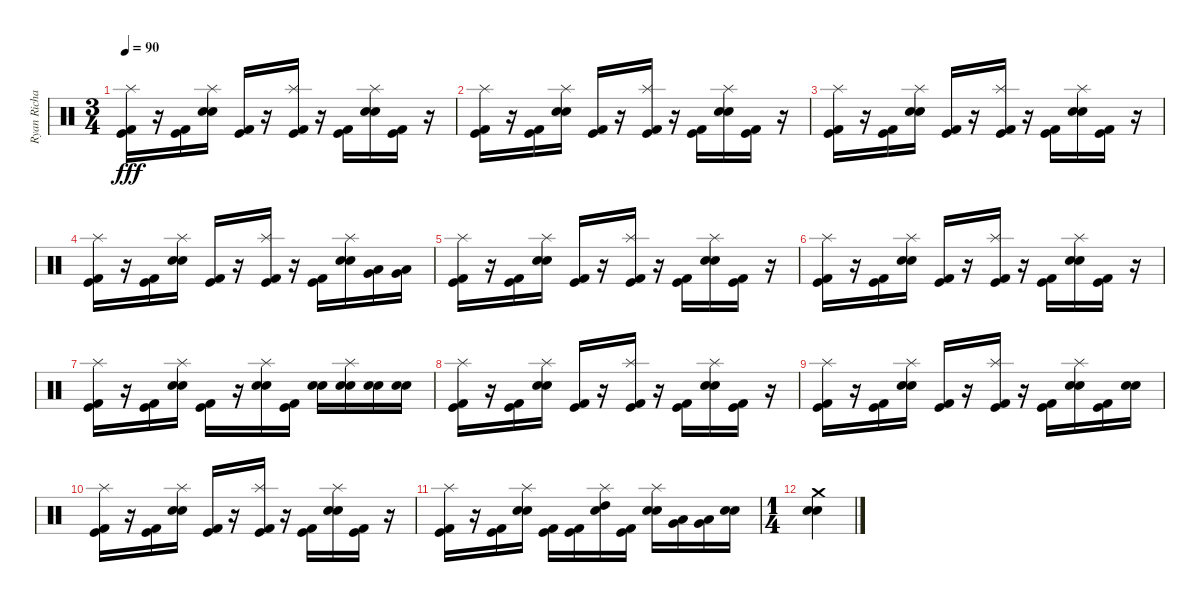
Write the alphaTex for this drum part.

\track ("Ryan Richards" "Ryan Richa") {instrument percussion}
\staff {score}
\articulation defaults
\ts (3 4)
\tempo 90
\clef neutral
\ks c
("Kick (hit)" "Splash (hit)" "Kick (hit) 2").16{dy fff} r.16 ("Kick (hit)" "Kick (hit) 2").16 ("Splash (hit)" "Snare (hit) 2" "Electric Snare (hit)").16 ("Kick (hit)" "Kick (hit) 2").16 r.16 ("Kick (hit)" "Splash (hit)" "Kick (hit) 2").16 r.16 ("Kick (hit)" "Kick (hit) 2").16 ("Splash (hit)" "Snare (hit) 2" "Electric Snare (hit)").16 ("Kick (hit)" "Kick (hit) 2").16 r.16 |
("Kick (hit)" "Splash (hit)" "Kick (hit) 2").16 r.16 ("Kick (hit)" "Kick (hit) 2").16 ("Splash (hit)" "Snare (hit) 2" "Electric Snare (hit)").16 ("Kick (hit)" "Kick (hit) 2").16 r.16 ("Kick (hit)" "Splash (hit)" "Kick (hit) 2").16 r.16 ("Kick (hit)" "Kick (hit) 2").16 ("Splash (hit)" "Snare (hit) 2" "Electric Snare (hit)").16 ("Kick (hit)" "Kick (hit) 2").16 r.16 |
("Kick (hit)" "Splash (hit)" "Kick (hit) 2").16 r.16 ("Kick (hit)" "Kick (hit) 2").16 ("Splash (hit)" "Snare (hit) 2" "Electric Snare (hit)").16 ("Kick (hit)" "Kick (hit) 2").16 r.16 ("Kick (hit)" "Splash (hit)" "Kick (hit) 2").16 r.16 ("Kick (hit)" "Kick (hit) 2").16 ("Splash (hit)" "Snare (hit) 2" "Electric Snare (hit)").16 ("Kick (hit)" "Kick (hit) 2").16 r.16 |
("Kick (hit)" "Splash (hit)" "Kick (hit) 2").16 r.16 ("Kick (hit)" "Kick (hit) 2").16 ("Splash (hit)" "Snare (hit) 2" "Electric Snare (hit)").16 ("Kick (hit)" "Kick (hit) 2").16 r.16 ("Kick (hit)" "Splash (hit)" "Kick (hit) 2").16 r.16 ("Kick (hit)" "Kick (hit) 2").16 ("Splash (hit)" "Snare (hit) 2" "Electric Snare (hit)").16 ("Low Tom (hit)" "Very Low Tom (hit)").16 ("Very Low Tom (hit)" "Low Floor Tom (hit)").16 |
("Kick (hit)" "Splash (hit)" "Kick (hit) 2").16 r.16 ("Kick (hit)" "Kick (hit) 2").16 ("Splash (hit)" "Snare (hit) 2" "Electric Snare (hit)").16 ("Kick (hit)" "Kick (hit) 2").16 r.16 ("Kick (hit)" "Splash (hit)" "Kick (hit) 2").16 r.16 ("Kick (hit)" "Kick (hit) 2").16 ("Splash (hit)" "Snare (hit) 2" "Electric Snare (hit)").16 ("Kick (hit)" "Kick (hit) 2").16 r.16 |
("Kick (hit)" "Splash (hit)" "Kick (hit) 2").16 r.16 ("Kick (hit)" "Kick (hit) 2").16 ("Splash (hit)" "Snare (hit) 2" "Electric Snare (hit)").16 ("Kick (hit)" "Kick (hit) 2").16 r.16 ("Kick (hit)" "Splash (hit)" "Kick (hit) 2").16 r.16 ("Kick (hit)" "Kick (hit) 2").16 ("Splash (hit)" "Snare (hit) 2" "Electric Snare (hit)").16 ("Kick (hit)" "Kick (hit) 2").16 r.16 |
("Kick (hit)" "Splash (hit)" "Kick (hit) 2").16 r.16 ("Kick (hit)" "Kick (hit) 2").16 ("Splash (hit)" "Snare (hit) 2" "Electric Snare (hit)").16 ("Kick (hit)" "Kick (hit) 2").16 r.16 ("Splash (hit)" "Snare (hit) 2" "Electric Snare (hit)").16 ("Kick (hit)" "Kick (hit) 2").16 ("Snare (hit) 2" "Electric Snare (hit)").16 ("Splash (hit)" "Snare (hit) 2" "Electric Snare (hit)").16 ("Snare (hit) 2" "Electric Snare (hit)").16 ("Snare (hit) 2" "Electric Snare (hit)").16 |
("Kick (hit)" "Splash (hit)" "Kick (hit) 2").16 r.16 ("Kick (hit)" "Kick (hit) 2").16 ("Splash (hit)" "Snare (hit) 2" "Electric Snare (hit)").16 ("Kick (hit)" "Kick (hit) 2").16 r.16 ("Kick (hit)" "Splash (hit)" "Kick (hit) 2").16 r.16 ("Kick (hit)" "Kick (hit) 2").16 ("Splash (hit)" "Snare (hit) 2" "Electric Snare (hit)").16 ("Kick (hit)" "Kick (hit) 2").16 r.16 |
("Kick (hit)" "Splash (hit)" "Kick (hit) 2").16 r.16 ("Kick (hit)" "Kick (hit) 2").16 ("Splash (hit)" "Snare (hit) 2" "Electric Snare (hit)").16 ("Kick (hit)" "Kick (hit) 2").16 r.16 ("Kick (hit)" "Splash (hit)" "Kick (hit) 2").16 r.16 ("Kick (hit)" "Kick (hit) 2").16 ("Splash (hit)" "Snare (hit) 2" "Electric Snare (hit)").16 ("Kick (hit)" "Kick (hit) 2").16 ("Snare (hit) 2" "Electric Snare (hit)").16 |
("Kick (hit)" "Splash (hit)" "Kick (hit) 2").16 r.16 ("Kick (hit)" "Kick (hit) 2").16 ("Splash (hit)" "Snare (hit) 2" "Electric Snare (hit)").16 ("Kick (hit)" "Kick (hit) 2").16 r.16 ("Kick (hit)" "Splash (hit)" "Kick (hit) 2").16 r.16 ("Kick (hit)" "Kick (hit) 2").16 ("Splash (hit)" "Snare (hit) 2" "Electric Snare (hit)").16 ("Kick (hit)" "Kick (hit) 2").16 r.16 |
("Kick (hit)" "Splash (hit)" "Kick (hit) 2").16 r.16 ("Kick (hit)" "Kick (hit) 2").16 ("Splash (hit)" "Snare (hit) 2" "Electric Snare (hit)").16 ("Kick (hit)" "Kick (hit) 2").16 ("Kick (hit)" "Kick (hit) 2").16 ("Splash (hit)" "High Tom (hit)" "Electric Snare (hit)").16 ("Kick (hit)" "Kick (hit) 2").16 ("Splash (hit)" "Snare (hit) 2" "Electric Snare (hit)").16 ("Low Tom (hit)" "Very Low Tom (hit)").16 ("Very Low Tom (hit)" "Low Floor Tom (hit)").16 ("Snare (hit) 2" "Electric Snare (hit)").16 |
\ts (1 4)
("Crash medium (hit)" "Snare (hit) 2" "Electric Snare (hit)").4
